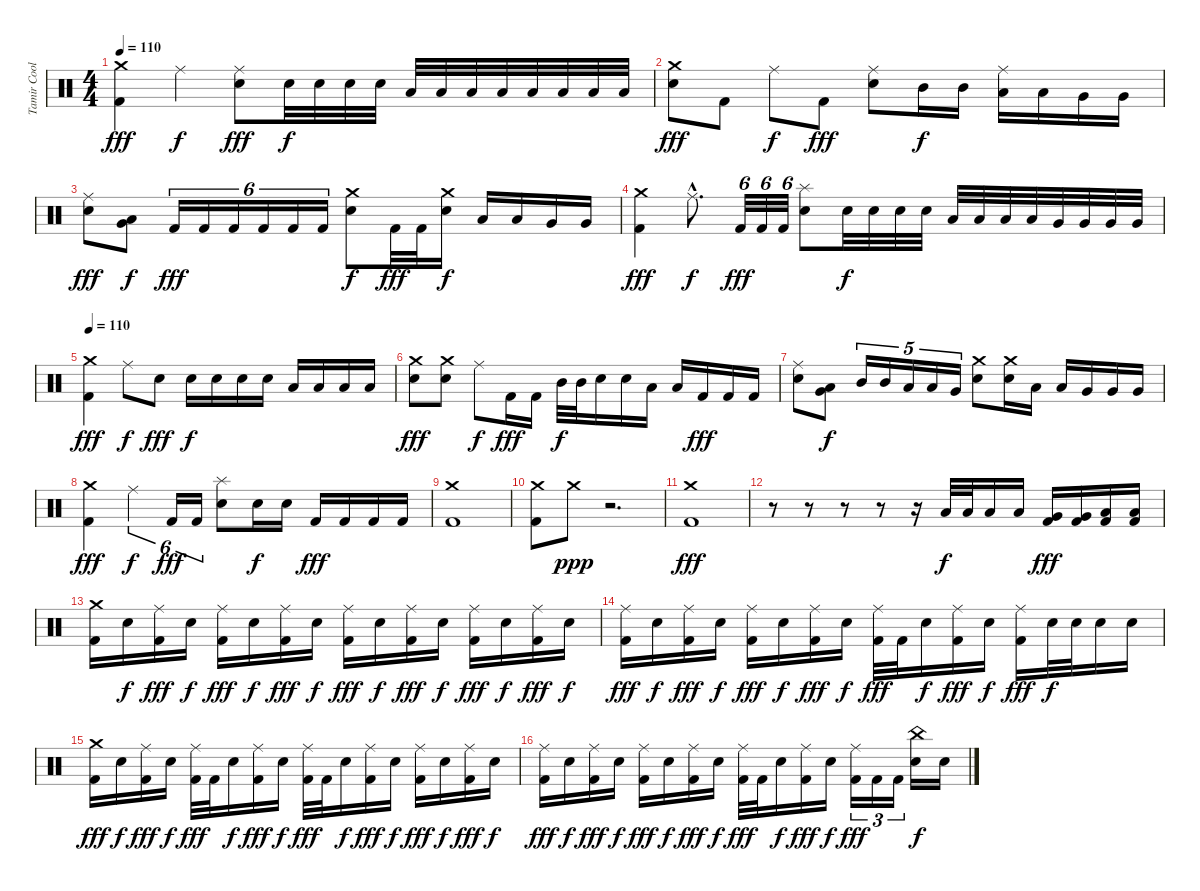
\track ("Tamir Coolberg" "Tamir Cool") {instrument percussion}
\staff {score}
\articulation defaults
\ts (4 4)
\tempo 110
\clef neutral
\ks c
("Crash medium (hit)" "Kick (hit) 2").4{dy fff} "Ride (middle)".4{dy f} ("Ride (middle)" "Electric Snare (hit)").8{dy fff} "Electric Snare (hit)".32{dy f} "Electric Snare (hit)".32 "Electric Snare (hit)".32 "Electric Snare (hit)".32 "Low Tom (hit)".32 "Low Tom (hit)".32 "Low Tom (hit)".32 "Low Tom (hit)".32 "Low Tom (hit)".32 "Low Tom (hit)".32 "Low Tom (hit)".32 "Low Tom (hit)".32 |
("Crash medium (hit)" "Electric Snare (hit)").8{dy fff} "Kick (hit) 2".8 "Ride (middle)".8{dy f} "Kick (hit) 2".8{dy fff} ("Ride (middle)" "Electric Snare (hit)").8 "Mid Tom (hit)".16{dy f} "Mid Tom (hit)".16 ("Ride (middle)" "Low Tom (hit)").16 "Low Tom (hit)".16 "Very Low Tom (hit)".16 "Very Low Tom (hit)".16 |
("Ride (middle)" "Electric Snare (hit)").8{dy fff} ("Low Tom (hit)" "Very Low Tom (hit)").8{dy f} "Kick (hit) 2".16{tu (6 4) dy fff} "Kick (hit) 2".16{tu (6 4)} "Kick (hit) 2".16{tu (6 4)} "Kick (hit) 2".16{tu (6 4)} "Kick (hit) 2".16{tu (6 4)} "Kick (hit) 2".16{tu (6 4)} ("Crash medium (hit)" "Electric Snare (hit)").8{dy f} "Kick (hit) 2".32{dy fff} "Kick (hit) 2".32 ("Crash medium (hit)" "Electric Snare (hit)").16{dy f} "Low Tom (hit)".16 "Low Tom (hit)".16 "Very Low Tom (hit)".16 "Very Low Tom (hit)".16 |
("Crash medium (hit)" "Kick (hit) 2").4{dy fff} "Ride (middle)"{hac}.8{d dy f} "Kick (hit) 2".32{tu (6 4) dy fff} "Kick (hit) 2".32{tu (6 4)} "Kick (hit) 2".32{tu (6 4)} ("Splash (hit)" "Electric Snare (hit)").8 "Electric Snare (hit)".32{dy f} "Electric Snare (hit)".32 "Electric Snare (hit)".32 "Electric Snare (hit)".32 "Low Tom (hit)".32 "Low Tom (hit)".32 "Low Tom (hit)".32 "Low Tom (hit)".32 "Very Low Tom (hit)".32 "Very Low Tom (hit)".32 "Very Low Tom (hit)".32 "Very Low Tom (hit)".32 |
\tempo 110
("Crash medium (hit)" "Kick (hit) 2").4{dy fff} "Ride (middle)".8{dy f} "Electric Snare (hit)".8{dy fff} "Electric Snare (hit)".16{dy f} "Electric Snare (hit)".16 "Electric Snare (hit)".16 "Electric Snare (hit)".16 "Low Tom (hit)".16 "Low Tom (hit)".16 "Low Tom (hit)".16 "Low Tom (hit)".16 |
("Crash medium (hit)" "Electric Snare (hit)").8{dy fff} ("Crash medium (hit)" "Electric Snare (hit)").8 "Ride (middle)".8{dy f} "Kick (hit) 2".16{dy fff} "Kick (hit) 2".16 "Mid Tom (hit)".32{dy f} "Mid Tom (hit)".32 "Electric Snare (hit)".16 "Electric Snare (hit)".16 "Low Tom (hit)".16 "Low Tom (hit)".16 "Kick (hit) 2".16{dy fff} "Kick (hit) 2".16 "Kick (hit) 2".16 |
("Ride (middle)" "Electric Snare (hit)").8 ("Low Tom (hit)" "Very Low Tom (hit)").8{dy f} "Mid Tom (hit)".16{tu (5 4)} "Mid Tom (hit)".16{tu (5 4)} "Low Tom (hit)".16{tu (5 4)} "Low Tom (hit)".16{tu (5 4)} "Very Low Tom (hit)".16{tu (5 4)} ("Crash medium (hit)" "Electric Snare (hit)").8 ("Crash medium (hit)" "Electric Snare (hit)").16 "Low Tom (hit)".16 "Low Tom (hit)".16 "Very Low Tom (hit)".16 "Very Low Tom (hit)".16 "Very Low Tom (hit)".16 |
("Crash medium (hit)" "Kick (hit) 2").4{dy fff} "Ride (middle)".4{tu (6 4) dy f} "Kick (hit) 2".16{tu (6 4) dy fff} "Kick (hit) 2".16{tu (6 4)} ("Splash (hit)" "Electric Snare (hit)").8 "Electric Snare (hit)".16{dy f} "Electric Snare (hit)".16 "Kick (hit) 2".16{dy fff} "Kick (hit) 2".16 "Kick (hit) 2".16 "Kick (hit) 2".16 |
("Crash medium (hit)" "Kick (hit) 2").1 |
("Crash medium (hit)" "Kick (hit) 2").8 "Crash medium (hit)".8{dy ppp} r.2{d} |
("Crash medium (hit)" "Kick (hit) 2").1{dy fff} |
r.8 r.8 r.8 r.8 r.16 "Low Tom (hit)".32{dy f} "Low Tom (hit)".32 "Low Tom (hit)".16 "Low Tom (hit)".16 ("Very Low Tom (hit)" "Kick (hit) 2").16{dy fff} ("Very Low Tom (hit)" "Kick (hit) 2").16 ("Low Floor Tom (hit)" "Kick (hit) 2").16 ("Low Floor Tom (hit)" "Kick (hit) 2").16 |
("Crash medium (hit)" "Kick (hit) 2").16 "Electric Snare (hit)".16{dy f} ("Ride (middle)" "Kick (hit) 2").16{dy fff} "Electric Snare (hit)".16{dy f} ("Ride (middle)" "Kick (hit) 2").16{dy fff} "Electric Snare (hit)".16{dy f} ("Ride (middle)" "Kick (hit) 2").16{dy fff} "Electric Snare (hit)".16{dy f} ("Ride (middle)" "Kick (hit) 2").16{dy fff} "Electric Snare (hit)".16{dy f} ("Ride (middle)" "Kick (hit) 2").16{dy fff} "Electric Snare (hit)".16{dy f} ("Ride (middle)" "Kick (hit) 2").16{dy fff} "Electric Snare (hit)".16{dy f} ("Ride (middle)" "Kick (hit) 2").16{dy fff} "Electric Snare (hit)".16{dy f} |
("Ride (middle)" "Kick (hit) 2").16{dy fff} "Electric Snare (hit)".16{dy f} ("Ride (middle)" "Kick (hit) 2").16{dy fff} "Electric Snare (hit)".16{dy f} ("Ride (middle)" "Kick (hit) 2").16{dy fff} "Electric Snare (hit)".16{dy f} ("Ride (middle)" "Kick (hit) 2").16{dy fff} "Electric Snare (hit)".16{dy f} ("Ride (middle)" "Kick (hit) 2").32{dy fff} "Kick (hit) 2".32 "Electric Snare (hit)".16{dy f} ("Ride (middle)" "Kick (hit) 2").16{dy fff} "Electric Snare (hit)".16{dy f} ("Ride (middle)" "Kick (hit) 2").16{dy fff} "Electric Snare (hit)".32{dy f} "Electric Snare (hit)".32 "Electric Snare (hit)".16 "Electric Snare (hit)".16 |
("Crash medium (hit)" "Kick (hit) 2").16{dy fff} "Electric Snare (hit)".16{dy f} ("Ride (middle)" "Kick (hit) 2").16{dy fff} "Electric Snare (hit)".16{dy f} ("Ride (middle)" "Kick (hit) 2").32{dy fff} "Kick (hit) 2".32 "Electric Snare (hit)".16{dy f} ("Ride (middle)" "Kick (hit) 2").16{dy fff} "Electric Snare (hit)".16{dy f} ("Ride (middle)" "Kick (hit) 2").32{dy fff} "Kick (hit) 2".32 "Electric Snare (hit)".16{dy f} ("Ride (middle)" "Kick (hit) 2").16{dy fff} "Electric Snare (hit)".16{dy f} ("Ride (middle)" "Kick (hit) 2").16{dy fff} "Electric Snare (hit)".16{dy f} ("Ride (middle)" "Kick (hit) 2").16{dy fff} "Electric Snare (hit)".16{dy f} |
("Ride (middle)" "Kick (hit) 2").16{dy fff} "Electric Snare (hit)".16{dy f} ("Ride (middle)" "Kick (hit) 2").16{dy fff} "Electric Snare (hit)".16{dy f} ("Ride (middle)" "Kick (hit) 2").16{dy fff} "Electric Snare (hit)".16{dy f} ("Ride (middle)" "Kick (hit) 2").16{dy fff} "Electric Snare (hit)".16{dy f} ("Ride (middle)" "Kick (hit) 2").32{dy fff} "Kick (hit) 2".32 "Electric Snare (hit)".16{dy f} ("Ride (middle)" "Kick (hit) 2").16{dy fff} "Electric Snare (hit)".16{dy f} ("Ride (middle)" "Kick (hit) 2").16{tu (3 2) dy fff} "Kick (hit) 2".16{tu (3 2)} "Kick (hit) 2".16{tu (3 2)} ("China (hit)" "Electric Snare (hit)").16{dy f} "Electric Snare (hit)".16
